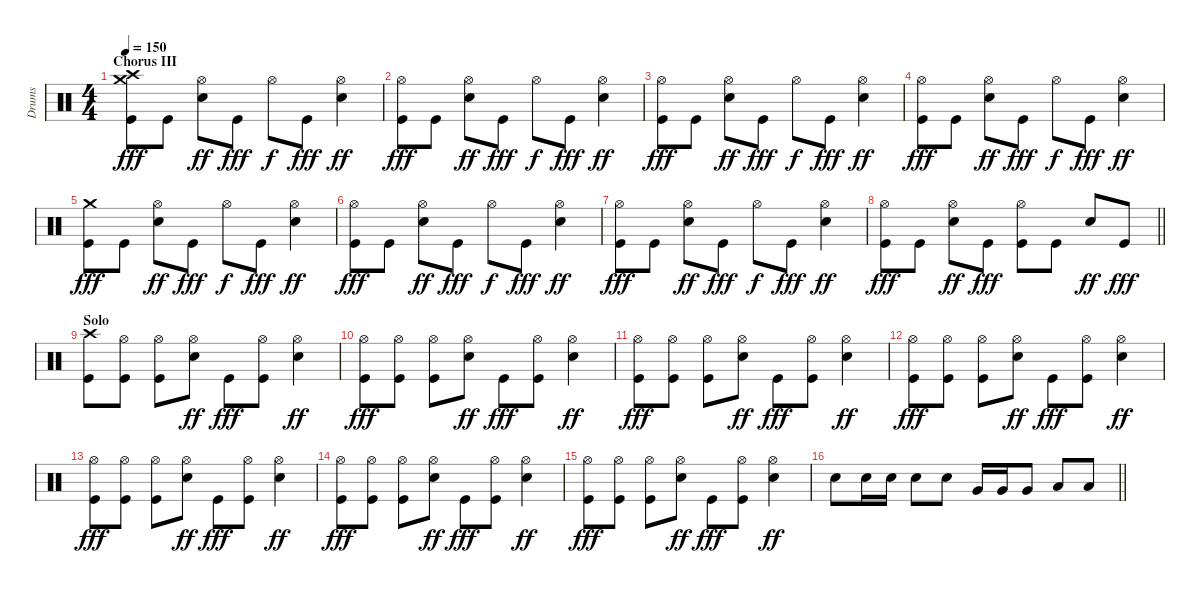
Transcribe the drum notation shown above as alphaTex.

\track ("Drums" "Drums") {instrument percussion}
\staff {score}
\articulation defaults
\ts (4 4)
\section ("" "Chorus III")
\tempo 150
\clef neutral
\ks c
("Crash high (hit)" "Crash medium (hit)" "Kick (hit)").8{dy fff} "Kick (hit)".8 ("Hi-Hat (open)" "Snare (hit) 2").8{dy ff} "Kick (hit)".8{dy fff} "Hi-Hat (open)".8{dy f} "Kick (hit)".8{dy fff} ("Hi-Hat (open)" "Snare (hit) 2").4{dy ff} |
("Hi-Hat (open)" "Kick (hit)").8{dy fff} "Kick (hit)".8 ("Hi-Hat (open)" "Snare (hit) 2").8{dy ff} "Kick (hit)".8{dy fff} "Hi-Hat (open)".8{dy f} "Kick (hit)".8{dy fff} ("Hi-Hat (open)" "Snare (hit) 2").4{dy ff} |
("Hi-Hat (open)" "Kick (hit)").8{dy fff} "Kick (hit)".8 ("Hi-Hat (open)" "Snare (hit) 2").8{dy ff} "Kick (hit)".8{dy fff} "Hi-Hat (open)".8{dy f} "Kick (hit)".8{dy fff} ("Hi-Hat (open)" "Snare (hit) 2").4{dy ff} |
("Hi-Hat (open)" "Kick (hit)").8{dy fff} "Kick (hit)".8 ("Hi-Hat (open)" "Snare (hit) 2").8{dy ff} "Kick (hit)".8{dy fff} "Hi-Hat (open)".8{dy f} "Kick (hit)".8{dy fff} ("Hi-Hat (open)" "Snare (hit) 2").4{dy ff} |
("Crash medium (hit)" "Kick (hit)").8{dy fff} "Kick (hit)".8 ("Hi-Hat (open)" "Snare (hit) 2").8{dy ff} "Kick (hit)".8{dy fff} "Hi-Hat (open)".8{dy f} "Kick (hit)".8{dy fff} ("Hi-Hat (open)" "Snare (hit) 2").4{dy ff} |
("Hi-Hat (open)" "Kick (hit)").8{dy fff} "Kick (hit)".8 ("Hi-Hat (open)" "Snare (hit) 2").8{dy ff} "Kick (hit)".8{dy fff} "Hi-Hat (open)".8{dy f} "Kick (hit)".8{dy fff} ("Hi-Hat (open)" "Snare (hit) 2").4{dy ff} |
("Hi-Hat (open)" "Kick (hit)").8{dy fff} "Kick (hit)".8 ("Hi-Hat (open)" "Snare (hit) 2").8{dy ff} "Kick (hit)".8{dy fff} "Hi-Hat (open)".8{dy f} "Kick (hit)".8{dy fff} ("Hi-Hat (open)" "Snare (hit) 2").4{dy ff} |
\barLineRight lightlight
("Hi-Hat (open)" "Kick (hit)").8{dy fff} "Kick (hit)".8 ("Hi-Hat (open)" "Snare (hit) 2").8{dy ff} "Kick (hit)".8{dy fff} ("Hi-Hat (open)" "Kick (hit)").8 "Kick (hit)".8 "Snare (hit) 2".8{dy ff} "Kick (hit)".8{dy fff} |
\section ("" "Solo")
("Crash high (hit)" "Kick (hit)").8 ("Hi-Hat (open)" "Kick (hit)").8 ("Hi-Hat (open)" "Kick (hit)").8 ("Hi-Hat (open)" "Snare (hit) 2").8{dy ff} "Kick (hit)".8{dy fff} ("Hi-Hat (open)" "Kick (hit)").8 ("Hi-Hat (open)" "Snare (hit) 2").4{dy ff} |
("Hi-Hat (open)" "Kick (hit)").8{dy fff} ("Hi-Hat (open)" "Kick (hit)").8 ("Hi-Hat (open)" "Kick (hit)").8 ("Hi-Hat (open)" "Snare (hit) 2").8{dy ff} "Kick (hit)".8{dy fff} ("Hi-Hat (open)" "Kick (hit)").8 ("Hi-Hat (open)" "Snare (hit) 2").4{dy ff} |
("Hi-Hat (open)" "Kick (hit)").8{dy fff} ("Hi-Hat (open)" "Kick (hit)").8 ("Hi-Hat (open)" "Kick (hit)").8 ("Hi-Hat (open)" "Snare (hit) 2").8{dy ff} "Kick (hit)".8{dy fff} ("Hi-Hat (open)" "Kick (hit)").8 ("Hi-Hat (open)" "Snare (hit) 2").4{dy ff} |
("Hi-Hat (open)" "Kick (hit)").8{dy fff} ("Hi-Hat (open)" "Kick (hit)").8 ("Hi-Hat (open)" "Kick (hit)").8 ("Hi-Hat (open)" "Snare (hit) 2").8{dy ff} "Kick (hit)".8{dy fff} ("Hi-Hat (open)" "Kick (hit)").8 ("Hi-Hat (open)" "Snare (hit) 2").4{dy ff} |
("Hi-Hat (open)" "Kick (hit)").8{dy fff} ("Hi-Hat (open)" "Kick (hit)").8 ("Hi-Hat (open)" "Kick (hit)").8 ("Hi-Hat (open)" "Snare (hit) 2").8{dy ff} "Kick (hit)".8{dy fff} ("Hi-Hat (open)" "Kick (hit)").8 ("Hi-Hat (open)" "Snare (hit) 2").4{dy ff} |
("Hi-Hat (open)" "Kick (hit)").8{dy fff} ("Hi-Hat (open)" "Kick (hit)").8 ("Hi-Hat (open)" "Kick (hit)").8 ("Hi-Hat (open)" "Snare (hit) 2").8{dy ff} "Kick (hit)".8{dy fff} ("Hi-Hat (open)" "Kick (hit)").8 ("Hi-Hat (open)" "Snare (hit) 2").4{dy ff} |
("Hi-Hat (open)" "Kick (hit)").8{dy fff} ("Hi-Hat (open)" "Kick (hit)").8 ("Hi-Hat (open)" "Kick (hit)").8 ("Hi-Hat (open)" "Snare (hit) 2").8{dy ff} "Kick (hit)".8{dy fff} ("Hi-Hat (open)" "Kick (hit)").8 ("Hi-Hat (open)" "Snare (hit) 2").4{dy ff} |
\barLineRight lightlight "Snare (hit) 2".8 "Snare (hit) 2".16 "Snare (hit) 2".16 "Snare (hit) 2".8 "Snare (hit) 2".8 "Very Low Tom (hit)".16 "Very Low Tom (hit)".16 "Very Low Tom (hit)".8 "Low Floor Tom (hit)".8 "Low Floor Tom (hit)".8
